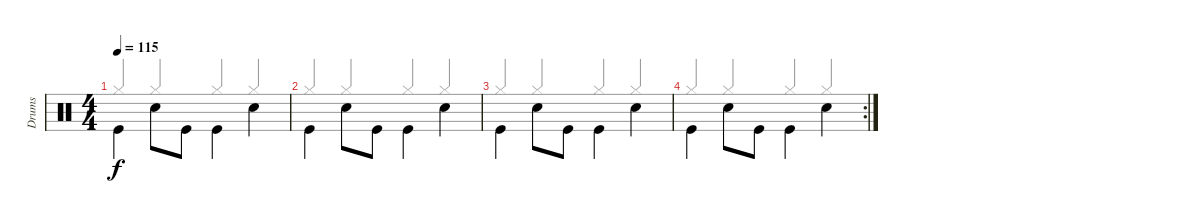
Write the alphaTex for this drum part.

\track ("Drums" "Drums") {instrument percussion}
\staff {score}
\articulation defaults
\voice
\ts (4 4)
\tempo 115
\clef neutral
\ks c "Kick (hit)".4{dy f beam Down} "Snare (hit) 2".8{beam Down} "Kick (hit)".8{beam Down} "Kick (hit)".4{beam Down} "Snare (hit) 2".4{beam Down}
|
"Kick (hit)".4{beam Down} "Snare (hit) 2".8{beam Down} "Kick (hit)".8{beam Down} "Kick (hit)".4{beam Down} "Snare (hit) 2".4{beam Down} |
"Kick (hit)".4{beam Down} "Snare (hit) 2".8{beam Down} "Kick (hit)".8{beam Down} "Kick (hit)".4{beam Down} "Snare (hit) 2".4{beam Down} |
\rc 2 "Kick (hit)".4{beam Down} "Snare (hit) 2".8{beam Down} "Kick (hit)".8{beam Down} "Kick (hit)".4{beam Down} "Snare (hit) 2".4{beam Down}
\voice
\clef neutral
\ottava regular
\simile none
\ks c "Hi-Hat (closed)".4{dy f beam Up} "Hi-Hat (closed)".4{beam Up} "Hi-Hat (closed)".4{beam Up} "Hi-Hat (closed)".4{beam Up}
|
"Hi-Hat (closed)".4{beam Up} "Hi-Hat (closed)".4{beam Up} "Hi-Hat (closed)".4{beam Up} "Hi-Hat (closed)".4{beam Up} |
"Hi-Hat (closed)".4{beam Up} "Hi-Hat (closed)".4{beam Up} "Hi-Hat (closed)".4{beam Up} "Hi-Hat (closed)".4{beam Up} |
"Hi-Hat (closed)".4{beam Up} "Hi-Hat (closed)".4{beam Up} "Hi-Hat (closed)".4{beam Up} "Hi-Hat (closed)".4{beam Up}
